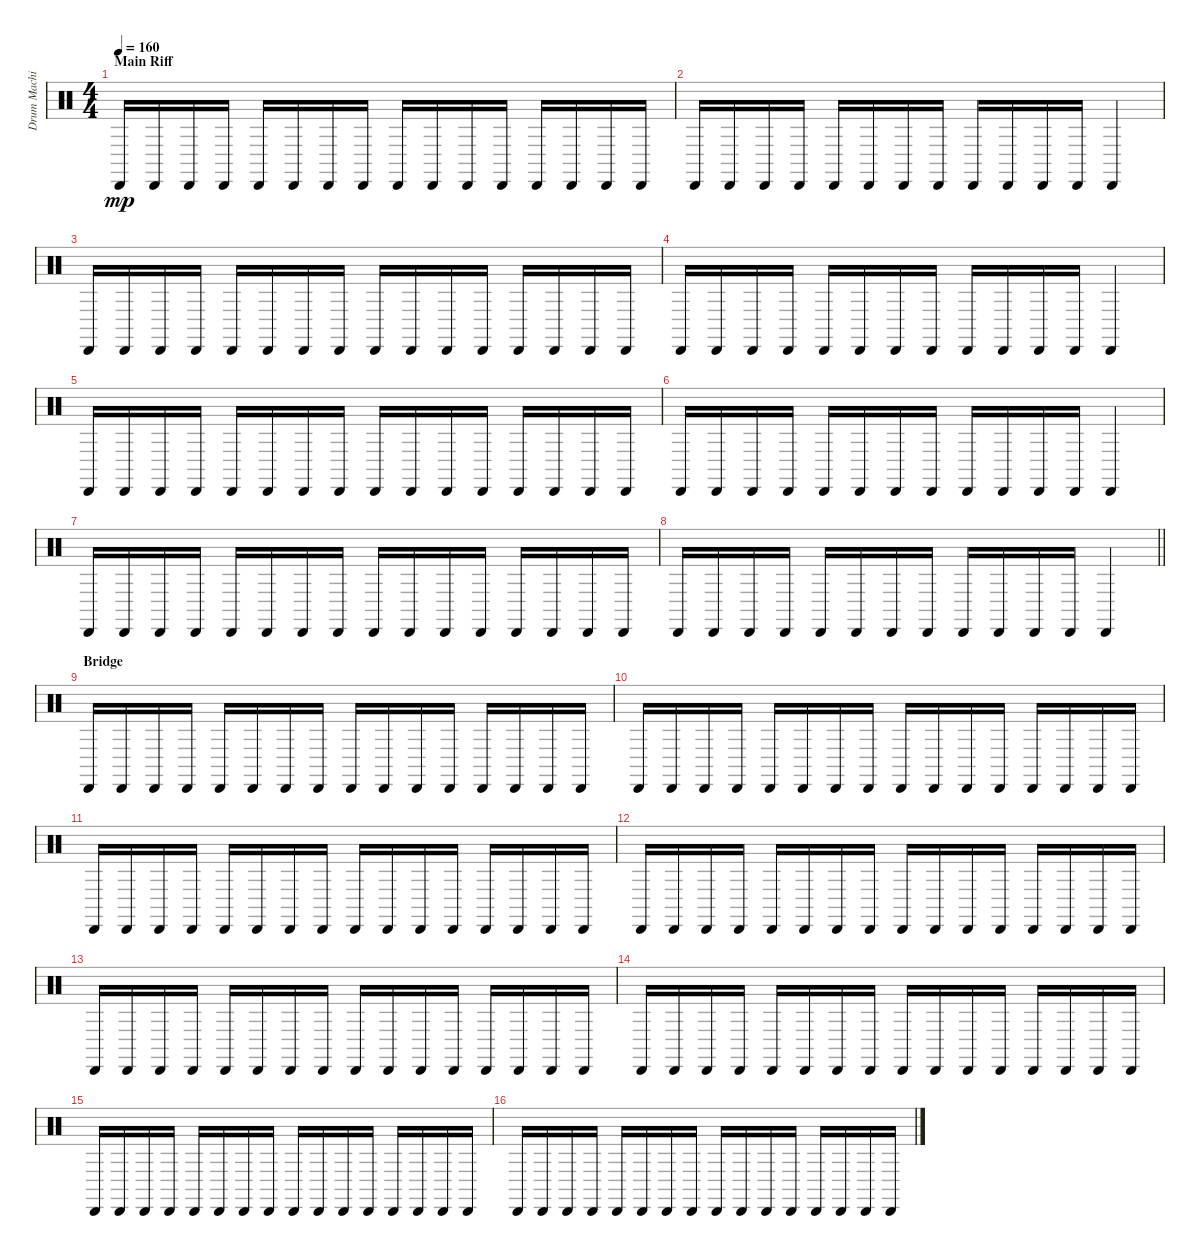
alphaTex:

\track ("Drum Machine" "Drum Machi") {instrument percussion}
\staff {score}
\articulation defaults
\ts (4 4)
\section ("" "Main Riff")
\tempo 160
\clef neutral
\ks c "Cabasa (hit)".16{dy mp} "Cabasa (hit)".16 "Cabasa (hit)".16 "Cabasa (hit)".16 "Cabasa (hit)".16 "Cabasa (hit)".16 "Cabasa (hit)".16 "Cabasa (hit)".16 "Cabasa (hit)".16 "Cabasa (hit)".16 "Cabasa (hit)".16 "Cabasa (hit)".16 "Cabasa (hit)".16 "Cabasa (hit)".16 "Cabasa (hit)".16 "Cabasa (hit)".16
|
"Cabasa (hit)".16 "Cabasa (hit)".16 "Cabasa (hit)".16 "Cabasa (hit)".16 "Cabasa (hit)".16 "Cabasa (hit)".16 "Cabasa (hit)".16 "Cabasa (hit)".16 "Cabasa (hit)".16 "Cabasa (hit)".16 "Cabasa (hit)".16 "Cabasa (hit)".16 "Cabasa (hit)".4 |
"Cabasa (hit)".16 "Cabasa (hit)".16 "Cabasa (hit)".16 "Cabasa (hit)".16 "Cabasa (hit)".16 "Cabasa (hit)".16 "Cabasa (hit)".16 "Cabasa (hit)".16 "Cabasa (hit)".16 "Cabasa (hit)".16 "Cabasa (hit)".16 "Cabasa (hit)".16 "Cabasa (hit)".16 "Cabasa (hit)".16 "Cabasa (hit)".16 "Cabasa (hit)".16 |
"Cabasa (hit)".16 "Cabasa (hit)".16 "Cabasa (hit)".16 "Cabasa (hit)".16 "Cabasa (hit)".16 "Cabasa (hit)".16 "Cabasa (hit)".16 "Cabasa (hit)".16 "Cabasa (hit)".16 "Cabasa (hit)".16 "Cabasa (hit)".16 "Cabasa (hit)".16 "Cabasa (hit)".4 |
"Cabasa (hit)".16 "Cabasa (hit)".16 "Cabasa (hit)".16 "Cabasa (hit)".16 "Cabasa (hit)".16 "Cabasa (hit)".16 "Cabasa (hit)".16 "Cabasa (hit)".16 "Cabasa (hit)".16 "Cabasa (hit)".16 "Cabasa (hit)".16 "Cabasa (hit)".16 "Cabasa (hit)".16 "Cabasa (hit)".16 "Cabasa (hit)".16 "Cabasa (hit)".16 |
"Cabasa (hit)".16 "Cabasa (hit)".16 "Cabasa (hit)".16 "Cabasa (hit)".16 "Cabasa (hit)".16 "Cabasa (hit)".16 "Cabasa (hit)".16 "Cabasa (hit)".16 "Cabasa (hit)".16 "Cabasa (hit)".16 "Cabasa (hit)".16 "Cabasa (hit)".16 "Cabasa (hit)".4 |
"Cabasa (hit)".16 "Cabasa (hit)".16 "Cabasa (hit)".16 "Cabasa (hit)".16 "Cabasa (hit)".16 "Cabasa (hit)".16 "Cabasa (hit)".16 "Cabasa (hit)".16 "Cabasa (hit)".16 "Cabasa (hit)".16 "Cabasa (hit)".16 "Cabasa (hit)".16 "Cabasa (hit)".16 "Cabasa (hit)".16 "Cabasa (hit)".16 "Cabasa (hit)".16 |
\barLineRight lightlight "Cabasa (hit)".16 "Cabasa (hit)".16 "Cabasa (hit)".16 "Cabasa (hit)".16 "Cabasa (hit)".16 "Cabasa (hit)".16 "Cabasa (hit)".16 "Cabasa (hit)".16 "Cabasa (hit)".16 "Cabasa (hit)".16 "Cabasa (hit)".16 "Cabasa (hit)".16 "Cabasa (hit)".4
|
\section ("" "Bridge")
"Cabasa (hit)".16 "Cabasa (hit)".16 "Cabasa (hit)".16 "Cabasa (hit)".16 "Cabasa (hit)".16 "Cabasa (hit)".16 "Cabasa (hit)".16 "Cabasa (hit)".16 "Cabasa (hit)".16 "Cabasa (hit)".16 "Cabasa (hit)".16 "Cabasa (hit)".16 "Cabasa (hit)".16 "Cabasa (hit)".16 "Cabasa (hit)".16 "Cabasa (hit)".16 |
"Cabasa (hit)".16 "Cabasa (hit)".16 "Cabasa (hit)".16 "Cabasa (hit)".16 "Cabasa (hit)".16 "Cabasa (hit)".16 "Cabasa (hit)".16 "Cabasa (hit)".16 "Cabasa (hit)".16 "Cabasa (hit)".16 "Cabasa (hit)".16 "Cabasa (hit)".16 "Cabasa (hit)".16 "Cabasa (hit)".16 "Cabasa (hit)".16 "Cabasa (hit)".16 |
"Cabasa (hit)".16 "Cabasa (hit)".16 "Cabasa (hit)".16 "Cabasa (hit)".16 "Cabasa (hit)".16 "Cabasa (hit)".16 "Cabasa (hit)".16 "Cabasa (hit)".16 "Cabasa (hit)".16 "Cabasa (hit)".16 "Cabasa (hit)".16 "Cabasa (hit)".16 "Cabasa (hit)".16 "Cabasa (hit)".16 "Cabasa (hit)".16 "Cabasa (hit)".16 |
"Cabasa (hit)".16 "Cabasa (hit)".16 "Cabasa (hit)".16 "Cabasa (hit)".16 "Cabasa (hit)".16 "Cabasa (hit)".16 "Cabasa (hit)".16 "Cabasa (hit)".16 "Cabasa (hit)".16 "Cabasa (hit)".16 "Cabasa (hit)".16 "Cabasa (hit)".16 "Cabasa (hit)".16 "Cabasa (hit)".16 "Cabasa (hit)".16 "Cabasa (hit)".16 |
"Cabasa (hit)".16 "Cabasa (hit)".16 "Cabasa (hit)".16 "Cabasa (hit)".16 "Cabasa (hit)".16 "Cabasa (hit)".16 "Cabasa (hit)".16 "Cabasa (hit)".16 "Cabasa (hit)".16 "Cabasa (hit)".16 "Cabasa (hit)".16 "Cabasa (hit)".16 "Cabasa (hit)".16 "Cabasa (hit)".16 "Cabasa (hit)".16 "Cabasa (hit)".16 |
"Cabasa (hit)".16 "Cabasa (hit)".16 "Cabasa (hit)".16 "Cabasa (hit)".16 "Cabasa (hit)".16 "Cabasa (hit)".16 "Cabasa (hit)".16 "Cabasa (hit)".16 "Cabasa (hit)".16 "Cabasa (hit)".16 "Cabasa (hit)".16 "Cabasa (hit)".16 "Cabasa (hit)".16 "Cabasa (hit)".16 "Cabasa (hit)".16 "Cabasa (hit)".16 |
"Cabasa (hit)".16 "Cabasa (hit)".16 "Cabasa (hit)".16 "Cabasa (hit)".16 "Cabasa (hit)".16 "Cabasa (hit)".16 "Cabasa (hit)".16 "Cabasa (hit)".16 "Cabasa (hit)".16 "Cabasa (hit)".16 "Cabasa (hit)".16 "Cabasa (hit)".16 "Cabasa (hit)".16 "Cabasa (hit)".16 "Cabasa (hit)".16 "Cabasa (hit)".16 |
"Cabasa (hit)".16 "Cabasa (hit)".16 "Cabasa (hit)".16 "Cabasa (hit)".16 "Cabasa (hit)".16 "Cabasa (hit)".16 "Cabasa (hit)".16 "Cabasa (hit)".16 "Cabasa (hit)".16 "Cabasa (hit)".16 "Cabasa (hit)".16 "Cabasa (hit)".16 "Cabasa (hit)".16 "Cabasa (hit)".16 "Cabasa (hit)".16 "Cabasa (hit)".16
